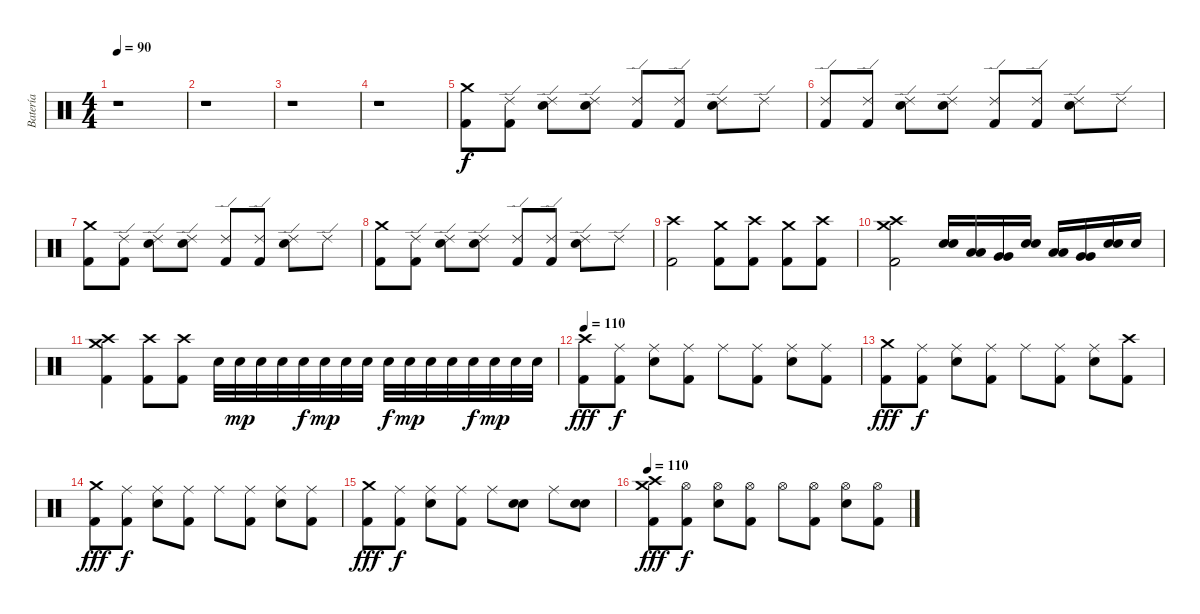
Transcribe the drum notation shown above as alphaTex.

\track ("Batería" "Batería") {instrument percussion}
\staff {score}
\articulation defaults
\ts (4 4)
\tempo 90
\clef neutral
\ks c
r.1{dy f} |
r.1 |
r.1 |
r.1 |
("Crash medium (hit)" "Kick (hit) 2").8 ("Ride (edge) 2" "Kick (hit) 2").8 ("Ride (edge) 2" "Snare (hit) 2").8 ("Ride (edge) 2" "Snare (hit) 2").8 ("Ride (edge) 2" "Kick (hit) 2").8 ("Ride (edge) 2" "Kick (hit) 2").8 ("Ride (edge) 2" "Snare (hit) 2").8 "Ride (edge) 2".8 |
("Ride (edge) 2" "Kick (hit) 2").8 ("Ride (edge) 2" "Kick (hit) 2").8 ("Ride (edge) 2" "Snare (hit) 2").8 ("Ride (edge) 2" "Snare (hit) 2").8 ("Ride (edge) 2" "Kick (hit) 2").8 ("Ride (edge) 2" "Kick (hit) 2").8 ("Ride (edge) 2" "Snare (hit) 2").8 "Ride (edge) 2".8 |
("Crash medium (hit)" "Kick (hit) 2").8 ("Ride (edge) 2" "Kick (hit) 2").8 ("Ride (edge) 2" "Snare (hit) 2").8 ("Ride (edge) 2" "Snare (hit) 2").8 ("Ride (edge) 2" "Kick (hit) 2").8 ("Ride (edge) 2" "Kick (hit) 2").8 ("Ride (edge) 2" "Snare (hit) 2").8 "Ride (edge) 2".8 |
("Crash medium (hit)" "Kick (hit) 2").8 ("Ride (edge) 2" "Kick (hit) 2").8 ("Ride (edge) 2" "Snare (hit) 2").8 ("Ride (edge) 2" "Snare (hit) 2").8 ("Ride (edge) 2" "Kick (hit) 2").8 ("Ride (edge) 2" "Kick (hit) 2").8 ("Ride (edge) 2" "Snare (hit) 2").8 "Ride (edge) 2".8 |
("Crash high (hit)" "Kick (hit) 2").2 ("Crash medium (hit)" "Kick (hit) 2").8 ("Crash high (hit)" "Kick (hit) 2").8 ("Crash medium (hit)" "Kick (hit) 2").8 ("Crash high (hit)" "Kick (hit) 2").8 |
("Crash high (hit)" "Crash medium (hit)" "Kick (hit) 2").2 ("Snare (hit) 2" "Snare (hit) 2").16{bd 240} ("Low Tom (hit)" "Low Tom (hit)").16 ("Very Low Tom (hit)" "Very Low Tom (hit)").16 ("Snare (hit) 2" "Snare (hit) 2").16{bd 60} ("Low Tom (hit)" "Low Tom (hit)").16 ("Very Low Tom (hit)" "Very Low Tom (hit)").16 ("Snare (hit) 2" "Snare (hit) 2").16{bd 60} "Snare (hit) 2".16 |
("Crash high (hit)" "Crash medium (hit)" "Kick (hit) 2").4 ("Crash high (hit)" "Kick (hit) 2").8 ("Crash high (hit)" "Kick (hit) 2").8 "Snare (hit) 2".32 "Snare (hit) 2".32{dy mp} "Snare (hit) 2".32 "Snare (hit) 2".32 "Snare (hit) 2".32{dy f} "Snare (hit) 2".32{dy mp} "Snare (hit) 2".32 "Snare (hit) 2".32 "Snare (hit) 2".32{dy f} "Snare (hit) 2".32{dy mp} "Snare (hit) 2".32 "Snare (hit) 2".32 "Snare (hit) 2".32{dy f} "Snare (hit) 2".32{dy mp} "Snare (hit) 2".32 "Snare (hit) 2".32 |
\tempo 110
("Crash high (hit)" "Kick (hit) 2").8{dy fff} ("Ride (middle)" "Kick (hit) 2").8{dy f} ("Ride (middle)" "Snare (hit) 2").8 ("Ride (middle)" "Kick (hit) 2").8 "Ride (middle)".8 ("Ride (middle)" "Kick (hit) 2").8 ("Ride (middle)" "Snare (hit) 2").8 ("Ride (middle)" "Kick (hit) 2").8 |
("Crash medium (hit)" "Kick (hit) 2").8{dy fff} ("Ride (middle)" "Kick (hit) 2").8{dy f} ("Ride (middle)" "Snare (hit) 2").8 ("Ride (middle)" "Kick (hit) 2").8 "Ride (middle)".8 ("Ride (middle)" "Kick (hit) 2").8 ("Ride (middle)" "Snare (hit) 2").8 ("Crash high (hit)" "Kick (hit) 2").8 |
("Crash medium (hit)" "Kick (hit) 2").8{dy fff} ("Ride (middle)" "Kick (hit) 2").8{dy f} ("Ride (middle)" "Snare (hit) 2").8 ("Ride (middle)" "Kick (hit) 2").8 "Ride (middle)".8 ("Ride (middle)" "Kick (hit) 2").8 ("Ride (middle)" "Snare (hit) 2").8 ("Ride (middle)" "Kick (hit) 2").8 |
("Crash medium (hit)" "Kick (hit) 2").8{dy fff} ("Ride (middle)" "Kick (hit) 2").8{dy f} ("Ride (middle)" "Snare (hit) 2").8 ("Ride (middle)" "Kick (hit) 2").8 "Ride (middle)".8 ("Snare (hit) 2" "Snare (hit) 2").8{bd 60} "Ride (middle)".8 ("Snare (hit) 2" "Snare (hit) 2").8{bd 60} |
\tempo 110
("Crash high (hit)" "Crash medium (hit)" "Kick (hit) 2").8{dy fff} ("Hi-Hat (open)" "Kick (hit) 2").8{dy f} ("Hi-Hat (open)" "Snare (hit) 2").8 ("Hi-Hat (open)" "Kick (hit) 2").8 "Hi-Hat (open)".8 ("Hi-Hat (open)" "Kick (hit) 2").8 ("Hi-Hat (open)" "Snare (hit) 2").8 ("Hi-Hat (open)" "Kick (hit) 2").8
